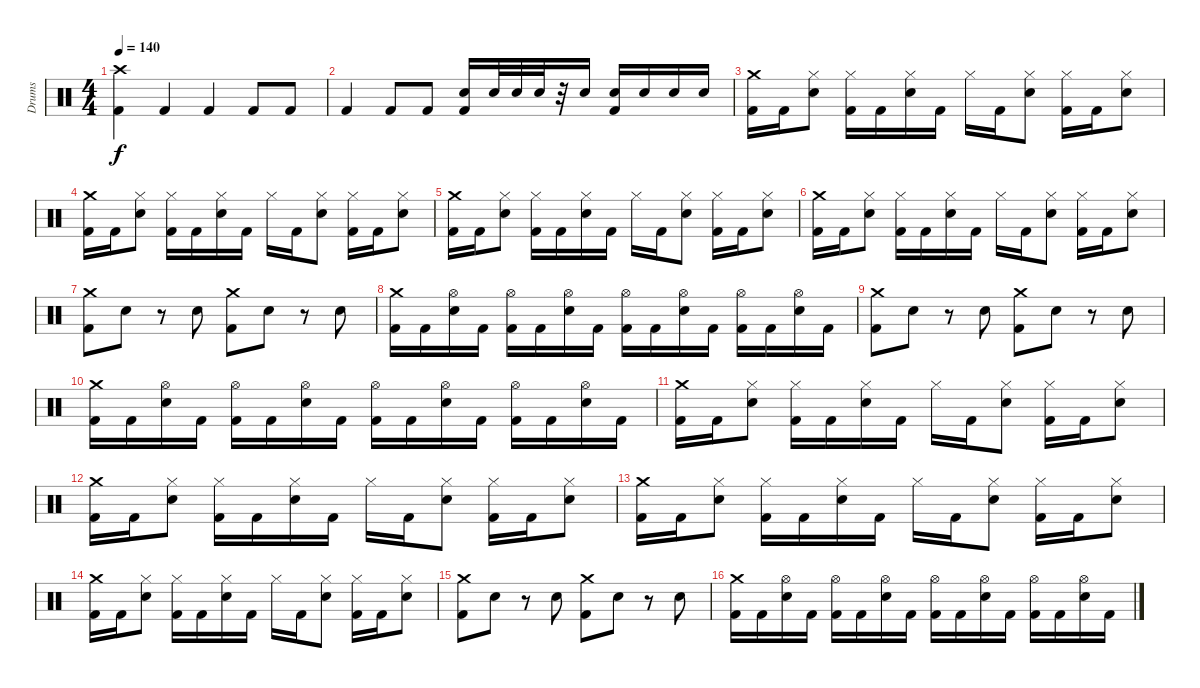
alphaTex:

\track ("Drums" "Drums") {instrument percussion}
\staff {score}
\articulation defaults
\ts (4 4)
\tempo 140
\clef neutral
\ks c
("Crash high (hit)" "Kick (hit) 2").4{dy f} "Kick (hit) 2".4 "Kick (hit) 2".4 "Kick (hit) 2".8 "Kick (hit) 2".8 |
"Kick (hit) 2".4 "Kick (hit) 2".8 "Kick (hit) 2".8 ("Electric Snare (hit)" "Kick (hit) 2").16 "Electric Snare (hit)".32 "Electric Snare (hit)".32 "Electric Snare (hit)".32 r.32 "Electric Snare (hit)".16 ("Electric Snare (hit)" "Kick (hit) 2").16 "Electric Snare (hit)".16 "Electric Snare (hit)".16 "Electric Snare (hit)".16 |
("Kick (hit) 2" "Crash medium (hit)").16 "Kick (hit) 2".16 ("Electric Snare (hit)" "Hi-Hat (closed)").8 ("Kick (hit) 2" "Hi-Hat (closed)").16 "Kick (hit) 2".16 ("Electric Snare (hit)" "Hi-Hat (closed)").16 "Kick (hit) 2".16 "Hi-Hat (closed)".16 "Kick (hit) 2".16 ("Electric Snare (hit)" "Hi-Hat (closed)").8 ("Kick (hit) 2" "Hi-Hat (closed)").16 "Kick (hit) 2".16 ("Electric Snare (hit)" "Hi-Hat (closed)").8 |
("Kick (hit) 2" "Crash medium (hit)").16 "Kick (hit) 2".16 ("Electric Snare (hit)" "Hi-Hat (closed)").8 ("Kick (hit) 2" "Hi-Hat (closed)").16 "Kick (hit) 2".16 ("Electric Snare (hit)" "Hi-Hat (closed)").16 "Kick (hit) 2".16 "Hi-Hat (closed)".16 "Kick (hit) 2".16 ("Electric Snare (hit)" "Hi-Hat (closed)").8 ("Kick (hit) 2" "Hi-Hat (closed)").16 "Kick (hit) 2".16 ("Electric Snare (hit)" "Hi-Hat (closed)").8 |
("Kick (hit) 2" "Crash medium (hit)").16 "Kick (hit) 2".16 ("Electric Snare (hit)" "Hi-Hat (closed)").8 ("Kick (hit) 2" "Hi-Hat (closed)").16 "Kick (hit) 2".16 ("Electric Snare (hit)" "Hi-Hat (closed)").16 "Kick (hit) 2".16 "Hi-Hat (closed)".16 "Kick (hit) 2".16 ("Electric Snare (hit)" "Hi-Hat (closed)").8 ("Kick (hit) 2" "Hi-Hat (closed)").16 "Kick (hit) 2".16 ("Electric Snare (hit)" "Hi-Hat (closed)").8 |
("Kick (hit) 2" "Crash medium (hit)").16 "Kick (hit) 2".16 ("Electric Snare (hit)" "Hi-Hat (closed)").8 ("Kick (hit) 2" "Hi-Hat (closed)").16 "Kick (hit) 2".16 ("Electric Snare (hit)" "Hi-Hat (closed)").16 "Kick (hit) 2".16 "Hi-Hat (closed)".16 "Kick (hit) 2".16 ("Electric Snare (hit)" "Hi-Hat (closed)").8 ("Kick (hit) 2" "Hi-Hat (closed)").16 "Kick (hit) 2".16 ("Electric Snare (hit)" "Hi-Hat (closed)").8 |
("Kick (hit) 2" "Crash medium (hit)").8 "Electric Snare (hit)".8 r.8 "Electric Snare (hit)".8 ("Kick (hit) 2" "Crash medium (hit)").8 "Electric Snare (hit)".8 r.8 "Electric Snare (hit)".8 |
("Kick (hit) 2" "Crash medium (hit)").16 "Kick (hit) 2".16 ("Electric Snare (hit)" "Hi-Hat (open)").16 "Kick (hit) 2".16 ("Kick (hit) 2" "Hi-Hat (open)").16 "Kick (hit) 2".16 ("Electric Snare (hit)" "Hi-Hat (open)").16 "Kick (hit) 2".16 ("Kick (hit) 2" "Hi-Hat (open)").16 "Kick (hit) 2".16 ("Electric Snare (hit)" "Hi-Hat (open)").16 "Kick (hit) 2".16 ("Kick (hit) 2" "Hi-Hat (open)").16 "Kick (hit) 2".16 ("Electric Snare (hit)" "Hi-Hat (open)").16 "Kick (hit) 2".16 |
("Kick (hit) 2" "Crash medium (hit)").8 "Electric Snare (hit)".8 r.8 "Electric Snare (hit)".8 ("Kick (hit) 2" "Crash medium (hit)").8 "Electric Snare (hit)".8 r.8 "Electric Snare (hit)".8 |
("Kick (hit) 2" "Crash medium (hit)").16 "Kick (hit) 2".16 ("Electric Snare (hit)" "Hi-Hat (open)").16 "Kick (hit) 2".16 ("Kick (hit) 2" "Hi-Hat (open)").16 "Kick (hit) 2".16 ("Electric Snare (hit)" "Hi-Hat (open)").16 "Kick (hit) 2".16 ("Kick (hit) 2" "Hi-Hat (open)").16 "Kick (hit) 2".16 ("Electric Snare (hit)" "Hi-Hat (open)").16 "Kick (hit) 2".16 ("Kick (hit) 2" "Hi-Hat (open)").16 "Kick (hit) 2".16 ("Electric Snare (hit)" "Hi-Hat (open)").16 "Kick (hit) 2".16 |
("Kick (hit) 2" "Crash medium (hit)").16 "Kick (hit) 2".16 ("Electric Snare (hit)" "Hi-Hat (closed)").8 ("Kick (hit) 2" "Hi-Hat (closed)").16 "Kick (hit) 2".16 ("Electric Snare (hit)" "Hi-Hat (closed)").16 "Kick (hit) 2".16 "Hi-Hat (closed)".16 "Kick (hit) 2".16 ("Electric Snare (hit)" "Hi-Hat (closed)").8 ("Kick (hit) 2" "Hi-Hat (closed)").16 "Kick (hit) 2".16 ("Electric Snare (hit)" "Hi-Hat (closed)").8 |
("Kick (hit) 2" "Crash medium (hit)").16 "Kick (hit) 2".16 ("Electric Snare (hit)" "Hi-Hat (closed)").8 ("Kick (hit) 2" "Hi-Hat (closed)").16 "Kick (hit) 2".16 ("Electric Snare (hit)" "Hi-Hat (closed)").16 "Kick (hit) 2".16 "Hi-Hat (closed)".16 "Kick (hit) 2".16 ("Electric Snare (hit)" "Hi-Hat (closed)").8 ("Kick (hit) 2" "Hi-Hat (closed)").16 "Kick (hit) 2".16 ("Electric Snare (hit)" "Hi-Hat (closed)").8 |
("Kick (hit) 2" "Crash medium (hit)").16 "Kick (hit) 2".16 ("Electric Snare (hit)" "Hi-Hat (closed)").8 ("Kick (hit) 2" "Hi-Hat (closed)").16 "Kick (hit) 2".16 ("Electric Snare (hit)" "Hi-Hat (closed)").16 "Kick (hit) 2".16 "Hi-Hat (closed)".16 "Kick (hit) 2".16 ("Electric Snare (hit)" "Hi-Hat (closed)").8 ("Kick (hit) 2" "Hi-Hat (closed)").16 "Kick (hit) 2".16 ("Electric Snare (hit)" "Hi-Hat (closed)").8 |
("Kick (hit) 2" "Crash medium (hit)").16 "Kick (hit) 2".16 ("Electric Snare (hit)" "Hi-Hat (closed)").8 ("Kick (hit) 2" "Hi-Hat (closed)").16 "Kick (hit) 2".16 ("Electric Snare (hit)" "Hi-Hat (closed)").16 "Kick (hit) 2".16 "Hi-Hat (closed)".16 "Kick (hit) 2".16 ("Electric Snare (hit)" "Hi-Hat (closed)").8 ("Kick (hit) 2" "Hi-Hat (closed)").16 "Kick (hit) 2".16 ("Electric Snare (hit)" "Hi-Hat (closed)").8 |
("Kick (hit) 2" "Crash medium (hit)").8 "Electric Snare (hit)".8 r.8 "Electric Snare (hit)".8 ("Kick (hit) 2" "Crash medium (hit)").8 "Electric Snare (hit)".8 r.8 "Electric Snare (hit)".8 |
("Kick (hit) 2" "Crash medium (hit)").16 "Kick (hit) 2".16 ("Electric Snare (hit)" "Hi-Hat (open)").16 "Kick (hit) 2".16 ("Kick (hit) 2" "Hi-Hat (open)").16 "Kick (hit) 2".16 ("Electric Snare (hit)" "Hi-Hat (open)").16 "Kick (hit) 2".16 ("Kick (hit) 2" "Hi-Hat (open)").16 "Kick (hit) 2".16 ("Electric Snare (hit)" "Hi-Hat (open)").16 "Kick (hit) 2".16 ("Kick (hit) 2" "Hi-Hat (open)").16 "Kick (hit) 2".16 ("Electric Snare (hit)" "Hi-Hat (open)").16 "Kick (hit) 2".16
